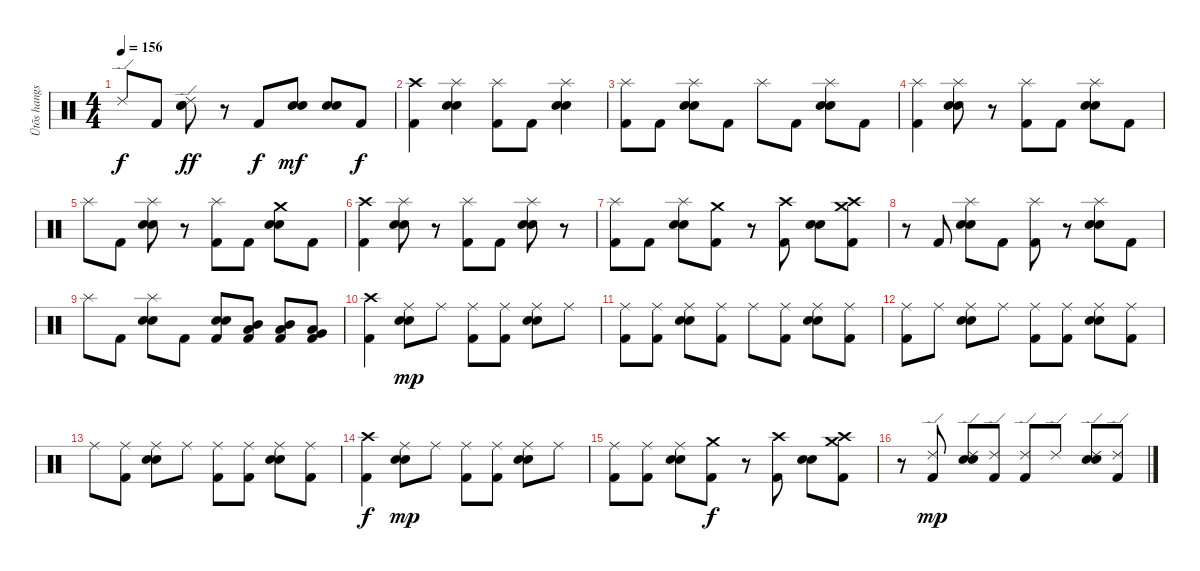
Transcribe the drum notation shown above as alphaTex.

\track ("Ütõs hangszer" "Ütõs hangs") {instrument percussion}
\staff {score}
\articulation defaults
\ts (4 4)
\tempo 156
\clef neutral
\ks c "Ride (edge) 2".8{dy f} "Kick (hit) 2".8
("Ride (edge) 2" "Snare (hit) 2" "Electric Snare (hit)").8{dy ff} r.8 "Kick (hit) 2".8{dy f} ("Snare (hit) 2" "Electric Snare (hit)").8{dy mf} ("Snare (hit) 2" "Electric Snare (hit)").8 "Kick (hit) 2".8{dy f} |
("Crash high (hit)" "Kick (hit) 2").4 ("Splash (hit)" "Snare (hit) 2" "Electric Snare (hit)").4 ("Splash (hit)" "Kick (hit) 2").8 "Kick (hit) 2".8 ("Splash (hit)" "Snare (hit) 2" "Electric Snare (hit)").4 |
("Splash (hit)" "Kick (hit) 2").8 "Kick (hit) 2".8 ("Splash (hit)" "Snare (hit) 2" "Electric Snare (hit)").8 "Kick (hit) 2".8 "Splash (hit)".8 "Kick (hit) 2".8 ("Splash (hit)" "Snare (hit) 2" "Electric Snare (hit)").8 "Kick (hit) 2".8 |
("Splash (hit)" "Kick (hit) 2").4 ("Splash (hit)" "Snare (hit) 2" "Electric Snare (hit)").8 r.8 ("Splash (hit)" "Kick (hit) 2").8 "Kick (hit) 2".8 ("Splash (hit)" "Snare (hit) 2" "Electric Snare (hit)").8 "Kick (hit) 2".8 |
"Splash (hit)".8 "Kick (hit) 2".8 ("Splash (hit)" "Snare (hit) 2" "Electric Snare (hit)").8 r.8 ("Splash (hit)" "Kick (hit) 2").8 "Kick (hit) 2".8 ("Crash medium (hit)" "Snare (hit) 2" "Electric Snare (hit)").8 "Kick (hit) 2".8 |
("Crash high (hit)" "Kick (hit) 2").4 ("Splash (hit)" "Snare (hit) 2" "Electric Snare (hit)").8 r.8 ("Splash (hit)" "Kick (hit) 2").8 "Kick (hit) 2".8 ("Splash (hit)" "Snare (hit) 2" "Electric Snare (hit)").8 r.8 |
("Splash (hit)" "Kick (hit) 2").8 "Kick (hit) 2".8 ("Splash (hit)" "Snare (hit) 2" "Electric Snare (hit)").8 ("Crash medium (hit)" "Kick (hit) 2").8 r.8 ("Crash high (hit)" "Kick (hit) 2").8 ("Snare (hit) 2" "Electric Snare (hit)").8 ("Crash high (hit)" "Crash medium (hit)" "Kick (hit) 2").8 |
r.8 "Kick (hit) 2".8 ("Splash (hit)" "Snare (hit) 2" "Electric Snare (hit)").8 "Kick (hit) 2".8 ("Splash (hit)" "Kick (hit) 2").8 r.8 ("Splash (hit)" "Snare (hit) 2" "Electric Snare (hit)").8 "Kick (hit) 2".8 |
"Splash (hit)".8 "Kick (hit) 2".8 ("Splash (hit)" "Snare (hit) 2" "Electric Snare (hit)").8 "Kick (hit) 2".8 ("Snare (hit) 2" "Electric Snare (hit)" "Kick (hit) 2").8 ("Mid Tom (hit)" "Low Tom (hit)" "Kick (hit) 2").8 ("Mid Tom (hit)" "Low Tom (hit)" "Kick (hit) 2").8 ("Very Low Tom (hit)" "Low Tom (hit)" "Kick (hit) 2").8 |
("Crash high (hit)" "Kick (hit) 2").4 ("Ride (middle)" "Snare (hit) 2" "Electric Snare (hit)").8{dy mp} "Ride (middle)".8 ("Ride (middle)" "Kick (hit) 2").8 ("Ride (middle)" "Kick (hit) 2").8 ("Ride (middle)" "Snare (hit) 2" "Electric Snare (hit)").8 "Ride (middle)".8 |
("Ride (middle)" "Kick (hit) 2").8 ("Ride (middle)" "Kick (hit) 2").8 ("Ride (middle)" "Snare (hit) 2" "Electric Snare (hit)").8 ("Ride (middle)" "Kick (hit) 2").8 "Ride (middle)".8 ("Ride (middle)" "Kick (hit) 2").8 ("Ride (middle)" "Snare (hit) 2" "Electric Snare (hit)").8 ("Ride (middle)" "Kick (hit) 2").8 |
("Ride (middle)" "Kick (hit) 2").8 "Ride (middle)".8 ("Ride (middle)" "Snare (hit) 2" "Electric Snare (hit)").8 "Ride (middle)".8 ("Ride (middle)" "Kick (hit) 2").8 ("Ride (middle)" "Kick (hit) 2").8 ("Ride (middle)" "Snare (hit) 2" "Electric Snare (hit)").8 ("Ride (middle)" "Kick (hit) 2").8 |
"Ride (middle)".8 ("Ride (middle)" "Kick (hit) 2").8 ("Ride (middle)" "Snare (hit) 2" "Electric Snare (hit)").8 "Ride (middle)".8 ("Ride (middle)" "Kick (hit) 2").8 ("Ride (middle)" "Kick (hit) 2").8 ("Ride (middle)" "Snare (hit) 2" "Electric Snare (hit)").8 ("Ride (middle)" "Kick (hit) 2").8 |
("Crash high (hit)" "Kick (hit) 2").4{dy f} ("Ride (middle)" "Snare (hit) 2" "Electric Snare (hit)").8{dy mp} "Ride (middle)".8 ("Ride (middle)" "Kick (hit) 2").8 ("Ride (middle)" "Kick (hit) 2").8 ("Ride (middle)" "Snare (hit) 2" "Electric Snare (hit)").8 "Ride (middle)".8 |
("Ride (middle)" "Kick (hit) 2").8 ("Ride (middle)" "Kick (hit) 2").8 ("Ride (middle)" "Snare (hit) 2" "Electric Snare (hit)").8 ("Crash medium (hit)" "Kick (hit) 2").8{dy f} r.8 ("Crash high (hit)" "Kick (hit) 2").8 ("Snare (hit) 2" "Electric Snare (hit)").8 ("Crash high (hit)" "Crash medium (hit)" "Kick (hit) 2").8 |
r.8 ("Ride (edge) 2" "Kick (hit) 2").8{dy mp} ("Ride (edge) 2" "Snare (hit) 2" "Electric Snare (hit)").8 ("Ride (edge) 2" "Kick (hit) 2").8 ("Ride (edge) 2" "Kick (hit) 2").8 "Ride (edge) 2".8 ("Ride (edge) 2" "Snare (hit) 2" "Electric Snare (hit)").8 ("Ride (edge) 2" "Kick (hit) 2").8
